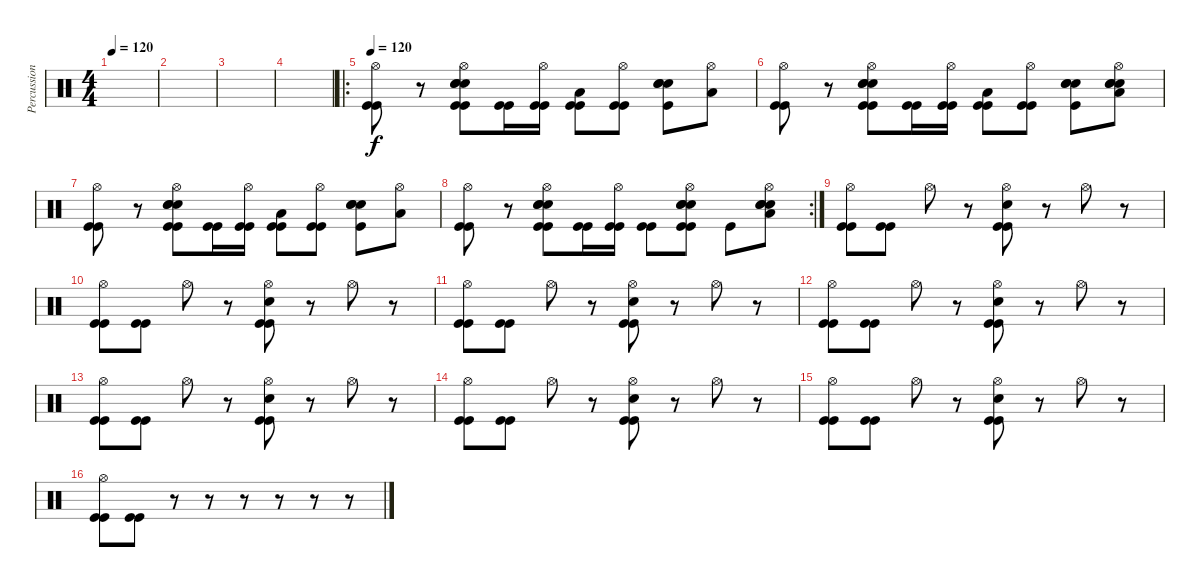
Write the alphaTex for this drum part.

\track ("Percussion" "Percussion") {instrument percussion}
\staff {score}
\articulation defaults
\ts (4 4)
\tempo 120
\clef neutral
\ks c
|
|
|
|
\ro
\tempo 120
("Hi-Hat (open)" "Kick (hit)" "Kick (hit)").8 r.8 ("Hi-Hat (open)" "Kick (hit)" "Kick (hit)" "Electric Snare (hit)" "Electric Snare (hit)" "Electric Snare (hit)").8 ("Kick (hit)" "Kick (hit)").16 ("Hi-Hat (open)" "Kick (hit)" "Kick (hit)").16 ("Kick (hit)" "Kick (hit)" "Low Tom (hit)").8 ("Hi-Hat (open)" "Kick (hit)" "Kick (hit)").8 ("Kick (hit)" "Electric Snare (hit)" "Electric Snare (hit)" "Electric Snare (hit)").8 ("Hi-Hat (open)" "Low Tom (hit)").8 |
("Hi-Hat (open)" "Kick (hit)" "Kick (hit)").8 r.8 ("Hi-Hat (open)" "Kick (hit)" "Kick (hit)" "Electric Snare (hit)" "Electric Snare (hit)" "Electric Snare (hit)").8 ("Kick (hit)" "Kick (hit)").16 ("Hi-Hat (open)" "Kick (hit)" "Kick (hit)").16 ("Kick (hit)" "Kick (hit)" "Low Tom (hit)").8 ("Hi-Hat (open)" "Kick (hit)" "Kick (hit)").8 ("Kick (hit)" "Electric Snare (hit)" "Electric Snare (hit)" "Electric Snare (hit)").8 ("Hi-Hat (open)" "Low Tom (hit)" "Electric Snare (hit)" "Electric Snare (hit)" "Electric Snare (hit)").8 |
("Hi-Hat (open)" "Kick (hit)" "Kick (hit)").8 r.8 ("Hi-Hat (open)" "Kick (hit)" "Kick (hit)" "Electric Snare (hit)" "Electric Snare (hit)" "Electric Snare (hit)").8 ("Kick (hit)" "Kick (hit)").16 ("Hi-Hat (open)" "Kick (hit)" "Kick (hit)").16 ("Kick (hit)" "Kick (hit)" "Low Tom (hit)").8 ("Hi-Hat (open)" "Kick (hit)" "Kick (hit)").8 ("Kick (hit)" "Electric Snare (hit)" "Electric Snare (hit)" "Electric Snare (hit)").8 ("Hi-Hat (open)" "Low Tom (hit)").8 |
\rc 2
("Hi-Hat (open)" "Kick (hit)" "Kick (hit)").8 r.8 ("Hi-Hat (open)" "Kick (hit)" "Kick (hit)" "Electric Snare (hit)" "Electric Snare (hit)" "Electric Snare (hit)").8 ("Kick (hit)" "Kick (hit)").16 ("Hi-Hat (open)" "Kick (hit)" "Kick (hit)").16 ("Kick (hit)" "Kick (hit)").8 ("Hi-Hat (open)" "Kick (hit)" "Kick (hit)" "Electric Snare (hit)" "Electric Snare (hit)" "Electric Snare (hit)").8 "Kick (hit)".8 ("Hi-Hat (open)" "Low Tom (hit)" "Electric Snare (hit)" "Electric Snare (hit)" "Electric Snare (hit)").8 |
("Hi-Hat (open)" "Kick (hit)" "Kick (hit)").8 ("Kick (hit)" "Kick (hit)").8 "Hi-Hat (open)".8 r.8 ("Hi-Hat (open)" "Kick (hit)" "Kick (hit)" "Electric Snare (hit)").8 r.8 "Hi-Hat (open)".8 r.8 |
("Hi-Hat (open)" "Kick (hit)" "Kick (hit)").8 ("Kick (hit)" "Kick (hit)").8 "Hi-Hat (open)".8 r.8 ("Hi-Hat (open)" "Kick (hit)" "Kick (hit)" "Electric Snare (hit)").8 r.8 "Hi-Hat (open)".8 r.8 |
("Hi-Hat (open)" "Kick (hit)" "Kick (hit)").8 ("Kick (hit)" "Kick (hit)").8 "Hi-Hat (open)".8 r.8 ("Hi-Hat (open)" "Kick (hit)" "Kick (hit)" "Electric Snare (hit)").8 r.8 "Hi-Hat (open)".8 r.8 |
("Hi-Hat (open)" "Kick (hit)" "Kick (hit)").8 ("Kick (hit)" "Kick (hit)").8 "Hi-Hat (open)".8 r.8 ("Hi-Hat (open)" "Kick (hit)" "Kick (hit)" "Electric Snare (hit)").8 r.8 "Hi-Hat (open)".8 r.8 |
("Hi-Hat (open)" "Kick (hit)" "Kick (hit)").8 ("Kick (hit)" "Kick (hit)").8 "Hi-Hat (open)".8 r.8 ("Hi-Hat (open)" "Kick (hit)" "Kick (hit)" "Electric Snare (hit)").8 r.8 "Hi-Hat (open)".8 r.8 |
("Hi-Hat (open)" "Kick (hit)" "Kick (hit)").8 ("Kick (hit)" "Kick (hit)").8 "Hi-Hat (open)".8 r.8 ("Hi-Hat (open)" "Kick (hit)" "Kick (hit)" "Electric Snare (hit)").8 r.8 "Hi-Hat (open)".8 r.8 |
("Hi-Hat (open)" "Kick (hit)" "Kick (hit)").8 ("Kick (hit)" "Kick (hit)").8 "Hi-Hat (open)".8 r.8 ("Hi-Hat (open)" "Kick (hit)" "Kick (hit)" "Electric Snare (hit)").8 r.8 "Hi-Hat (open)".8 r.8 |
("Hi-Hat (open)" "Kick (hit)" "Kick (hit)").8 ("Kick (hit)" "Kick (hit)").8 r.8 r.8 r.8 r.8 r.8 r.8
